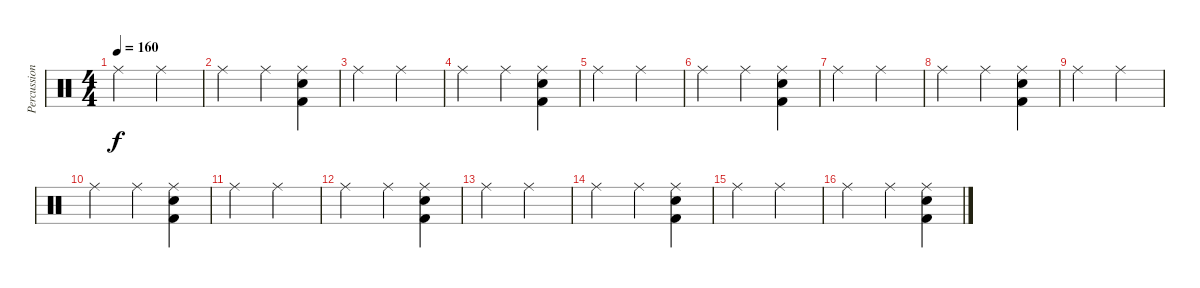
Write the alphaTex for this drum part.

\track ("Percussion" "Percussion") {instrument percussion}
\staff {score}
\articulation defaults
\ts (4 4)
\tempo 160
\clef neutral
\ks c "Ride (middle)".2{dy f} "Ride (middle)".2
|
"Ride (middle)".2 "Ride (middle)".4 ("Ride (middle)" "Snare (hit) 2" "Kick (hit) 2").4 |
"Ride (middle)".2 "Ride (middle)".2 |
"Ride (middle)".2 "Ride (middle)".4 ("Ride (middle)" "Snare (hit) 2" "Kick (hit) 2").4 |
"Ride (middle)".2 "Ride (middle)".2 |
"Ride (middle)".2 "Ride (middle)".4 ("Ride (middle)" "Snare (hit) 2" "Kick (hit) 2").4 |
"Ride (middle)".2 "Ride (middle)".2 |
"Ride (middle)".2 "Ride (middle)".4 ("Ride (middle)" "Snare (hit) 2" "Kick (hit) 2").4 |
"Ride (middle)".2 "Ride (middle)".2 |
"Ride (middle)".2 "Ride (middle)".4 ("Ride (middle)" "Snare (hit) 2" "Kick (hit) 2").4 |
"Ride (middle)".2 "Ride (middle)".2 |
"Ride (middle)".2 "Ride (middle)".4 ("Ride (middle)" "Snare (hit) 2" "Kick (hit) 2").4 |
"Ride (middle)".2 "Ride (middle)".2 |
"Ride (middle)".2 "Ride (middle)".4 ("Ride (middle)" "Snare (hit) 2" "Kick (hit) 2").4 |
"Ride (middle)".2 "Ride (middle)".2 |
"Ride (middle)".2 "Ride (middle)".4 ("Ride (middle)" "Snare (hit) 2" "Kick (hit) 2").4
